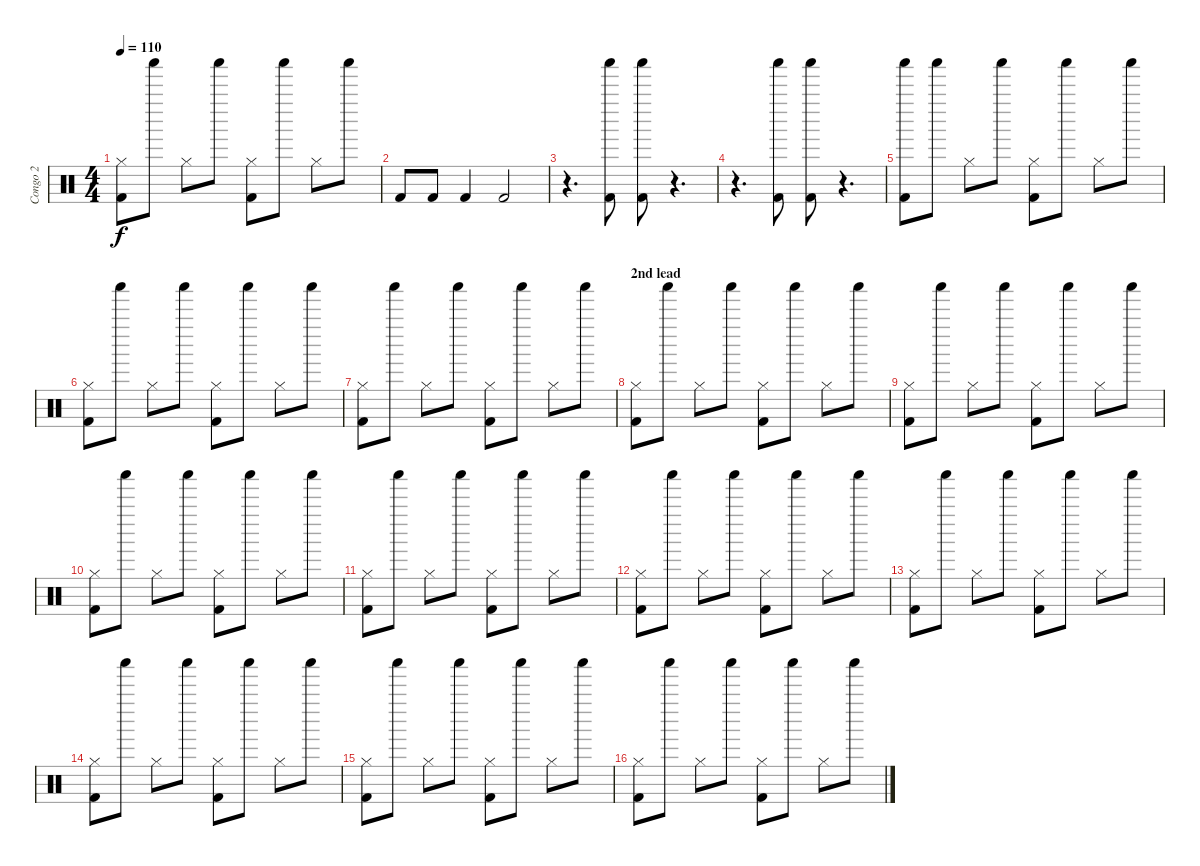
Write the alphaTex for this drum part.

\track ("Congo 2" "Congo 2") {instrument percussion}
\staff {score}
\articulation defaults
\ts (4 4)
\tempo 110
\clef neutral
\ks c
("Kick (hit) 2" "Hi-Hat (closed)").8{dy f} "Shaker (hit)".8 "Hi-Hat (closed)".8 "Shaker (hit)".8 ("Kick (hit) 2" "Hi-Hat (closed)").8 "Shaker (hit)".8 "Hi-Hat (closed)".8 "Shaker (hit)".8 |
"Kick (hit) 2".8 "Kick (hit) 2".8 "Kick (hit) 2".4 "Kick (hit) 2".2 |
r.4{d} ("Kick (hit) 2" "Shaker (hit)").8 ("Kick (hit) 2" "Shaker (hit)").8 r.4{d} |
r.4{d} ("Kick (hit) 2" "Shaker (hit)").8 ("Kick (hit) 2" "Shaker (hit)").8 r.4{d} |
("Kick (hit) 2" "Shaker (hit)").8 "Shaker (hit)".8 "Hi-Hat (closed)".8 "Shaker (hit)".8 ("Kick (hit) 2" "Hi-Hat (closed)").8 "Shaker (hit)".8 "Hi-Hat (closed)".8 "Shaker (hit)".8 |
("Kick (hit) 2" "Hi-Hat (closed)").8 "Shaker (hit)".8 "Hi-Hat (closed)".8 "Shaker (hit)".8 ("Kick (hit) 2" "Hi-Hat (closed)").8 "Shaker (hit)".8 "Hi-Hat (closed)".8 "Shaker (hit)".8 |
("Kick (hit) 2" "Hi-Hat (closed)").8 "Shaker (hit)".8 "Hi-Hat (closed)".8 "Shaker (hit)".8 ("Kick (hit) 2" "Hi-Hat (closed)").8 "Shaker (hit)".8 "Hi-Hat (closed)".8 "Shaker (hit)".8 |
\section ("" "2nd lead")
("Kick (hit) 2" "Hi-Hat (closed)").8 "Shaker (hit)".8 "Hi-Hat (closed)".8 "Shaker (hit)".8 ("Kick (hit) 2" "Hi-Hat (closed)").8 "Shaker (hit)".8 "Hi-Hat (closed)".8 "Shaker (hit)".8 |
("Kick (hit) 2" "Hi-Hat (closed)").8 "Shaker (hit)".8 "Hi-Hat (closed)".8 "Shaker (hit)".8 ("Kick (hit) 2" "Hi-Hat (closed)").8 "Shaker (hit)".8 "Hi-Hat (closed)".8 "Shaker (hit)".8 |
("Kick (hit) 2" "Hi-Hat (closed)").8 "Shaker (hit)".8 "Hi-Hat (closed)".8 "Shaker (hit)".8 ("Kick (hit) 2" "Hi-Hat (closed)").8 "Shaker (hit)".8 "Hi-Hat (closed)".8 "Shaker (hit)".8 |
("Kick (hit) 2" "Hi-Hat (closed)").8 "Shaker (hit)".8 "Hi-Hat (closed)".8 "Shaker (hit)".8 ("Kick (hit) 2" "Hi-Hat (closed)").8 "Shaker (hit)".8 "Hi-Hat (closed)".8 "Shaker (hit)".8 |
("Kick (hit) 2" "Hi-Hat (closed)").8 "Shaker (hit)".8 "Hi-Hat (closed)".8 "Shaker (hit)".8 ("Kick (hit) 2" "Hi-Hat (closed)").8 "Shaker (hit)".8 "Hi-Hat (closed)".8 "Shaker (hit)".8 |
("Kick (hit) 2" "Hi-Hat (closed)").8 "Shaker (hit)".8 "Hi-Hat (closed)".8 "Shaker (hit)".8 ("Kick (hit) 2" "Hi-Hat (closed)").8 "Shaker (hit)".8 "Hi-Hat (closed)".8 "Shaker (hit)".8 |
("Kick (hit) 2" "Hi-Hat (closed)").8 "Shaker (hit)".8 "Hi-Hat (closed)".8 "Shaker (hit)".8 ("Kick (hit) 2" "Hi-Hat (closed)").8 "Shaker (hit)".8 "Hi-Hat (closed)".8 "Shaker (hit)".8 |
("Kick (hit) 2" "Hi-Hat (closed)").8 "Shaker (hit)".8 "Hi-Hat (closed)".8 "Shaker (hit)".8 ("Kick (hit) 2" "Hi-Hat (closed)").8 "Shaker (hit)".8 "Hi-Hat (closed)".8 "Shaker (hit)".8 |
("Kick (hit) 2" "Hi-Hat (closed)").8 "Shaker (hit)".8 "Hi-Hat (closed)".8 "Shaker (hit)".8 ("Kick (hit) 2" "Hi-Hat (closed)").8 "Shaker (hit)".8 "Hi-Hat (closed)".8 "Shaker (hit)".8
